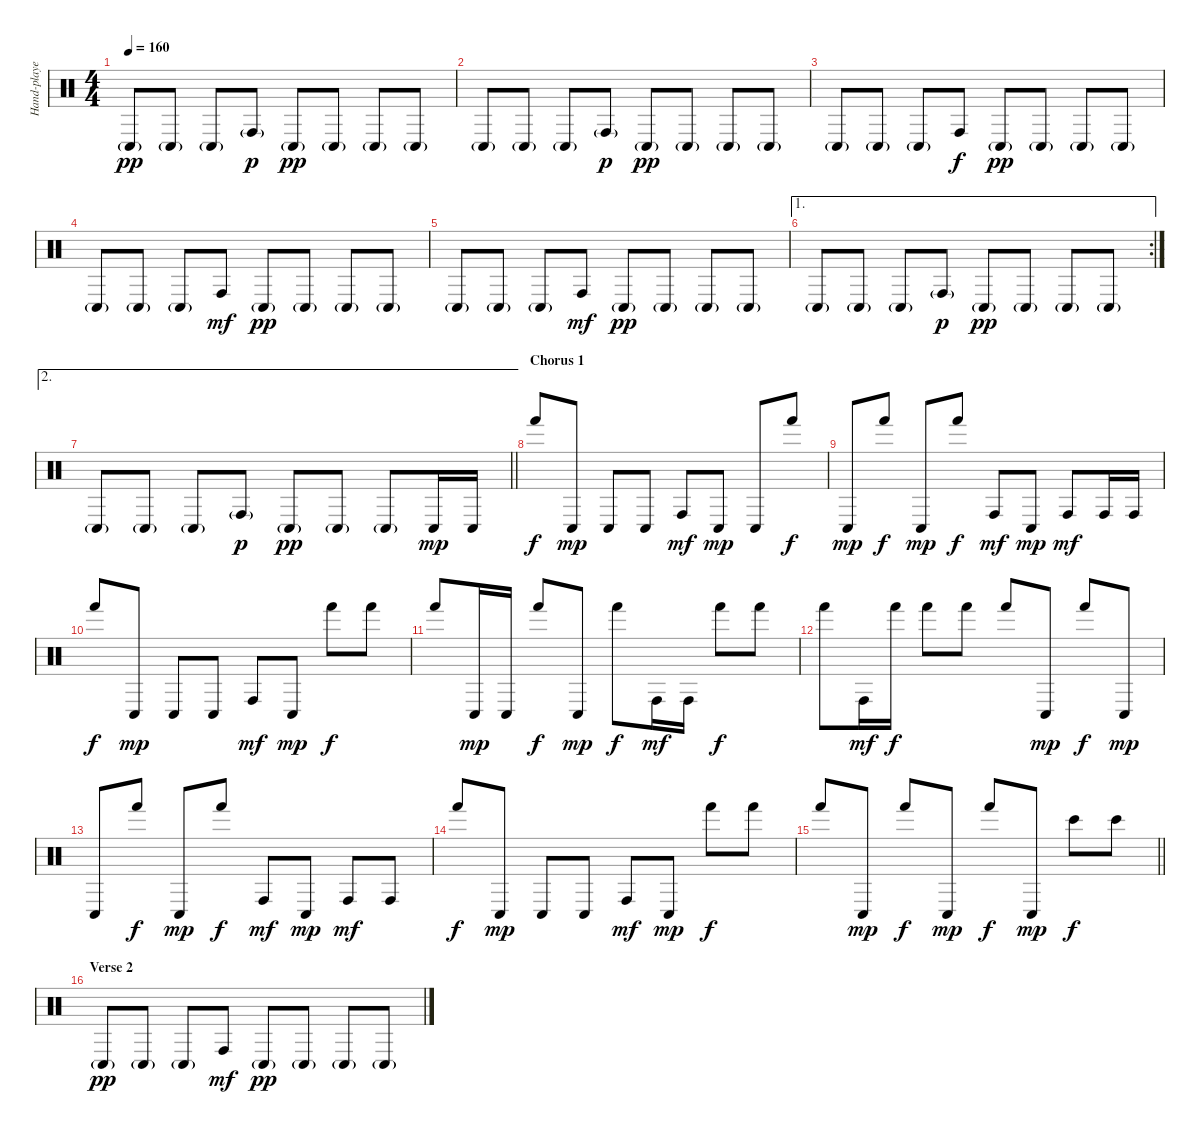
\track ("Hand-played drums" "Hand-playe") {instrument percussion}
\staff {score}
\articulation defaults
\ts (4 4)
\tempo 160
\clef neutral
\ks c "Conga low (hit)"{g}.8{dy pp} "Conga low (hit)"{g}.8 "Conga low (hit)"{g}.8 "Conga high (hit)"{g}.8{dy p} "Conga low (hit)"{g}.8{dy pp} "Conga low (hit)"{g}.8 "Conga low (hit)"{g}.8 "Conga low (hit)"{g}.8
|
"Conga low (hit)"{g}.8 "Conga low (hit)"{g}.8 "Conga low (hit)"{g}.8 "Conga high (hit)"{g}.8{dy p} "Conga low (hit)"{g}.8{dy pp} "Conga low (hit)"{g}.8 "Conga low (hit)"{g}.8 "Conga low (hit)"{g}.8 |
"Conga low (hit)"{g}.8 "Conga low (hit)"{g}.8 "Conga low (hit)"{g}.8 "Conga high (hit)".8{dy f} "Conga low (hit)"{g}.8{dy pp} "Conga low (hit)"{g}.8 "Conga low (hit)"{g}.8 "Conga low (hit)"{g}.8 |
"Conga low (hit)"{g}.8 "Conga low (hit)"{g}.8 "Conga low (hit)"{g}.8 "Conga high (hit)".8{dy mf} "Conga low (hit)"{g}.8{dy pp} "Conga low (hit)"{g}.8 "Conga low (hit)"{g}.8 "Conga low (hit)"{g}.8 |
"Conga low (hit)"{g}.8 "Conga low (hit)"{g}.8 "Conga low (hit)"{g}.8 "Conga high (hit)".8{dy mf} "Conga low (hit)"{g}.8{dy pp} "Conga low (hit)"{g}.8 "Conga low (hit)"{g}.8 "Conga low (hit)"{g}.8 |
\ae 1
\rc 2 "Conga low (hit)"{g}.8 "Conga low (hit)"{g}.8 "Conga low (hit)"{g}.8 "Conga high (hit)"{g}.8{dy p} "Conga low (hit)"{g}.8{dy pp} "Conga low (hit)"{g}.8 "Conga low (hit)"{g}.8 "Conga low (hit)"{g}.8
|
\ae 2
\barLineRight lightlight "Conga low (hit)"{g}.8 "Conga low (hit)"{g}.8 "Conga low (hit)"{g}.8 "Conga high (hit)"{g}.8{dy p} "Conga low (hit)"{g}.8{dy pp} "Conga low (hit)"{g}.8 "Conga low (hit)"{g}.8 "Conga low (hit)".16{dy mp} "Conga low (hit)".16
|
\section ("" "Chorus 1")
"Hand (hit)".8{dy f} "Conga low (hit)".8{dy mp} "Conga low (hit)".8 "Conga low (hit)".8 "Conga high (hit)".8{dy mf} "Conga low (hit)".8{dy mp} "Conga low (hit)".8 "Hand (hit)".8{dy f} |
"Conga low (hit)".8{dy mp} "Hand (hit)".8{dy f} "Conga low (hit)".8{dy mp} "Hand (hit)".8{dy f} "Conga high (hit)".8{dy mf} "Conga low (hit)".8{dy mp} "Conga high (hit)".8{dy mf} "Conga high (hit)".16 "Conga high (hit)".16 |
"Hand (hit)".8{dy f} "Conga low (hit)".8{dy mp} "Conga low (hit)".8 "Conga low (hit)".8 "Conga high (hit)".8{dy mf} "Conga low (hit)".8{dy mp} "Hand (hit)".8{dy f} "Hand (hit)".8 |
"Hand (hit)".8 "Conga low (hit)".16{dy mp} "Conga low (hit)".16 "Hand (hit)".8{dy f} "Conga low (hit)".8{dy mp} "Hand (hit)".8{dy f} "Conga high (hit)".16{dy mf} "Conga high (hit)".16 "Hand (hit)".8{dy f} "Hand (hit)".8 |
"Hand (hit)".8 "Conga high (hit)".16{dy mf} "Hand (hit)".16{dy f} "Hand (hit)".8 "Hand (hit)".8 "Hand (hit)".8 "Conga low (hit)".8{dy mp} "Hand (hit)".8{dy f} "Conga low (hit)".8{dy mp} |
"Conga low (hit)".8 "Hand (hit)".8{dy f} "Conga low (hit)".8{dy mp} "Hand (hit)".8{dy f} "Conga high (hit)".8{dy mf} "Conga low (hit)".8{dy mp} "Conga high (hit)".8{dy mf} "Conga high (hit)".8 |
"Hand (hit)".8{dy f} "Conga low (hit)".8{dy mp} "Conga low (hit)".8 "Conga low (hit)".8 "Conga high (hit)".8{dy mf} "Conga low (hit)".8{dy mp} "Hand (hit)".8{dy f} "Hand (hit)".8 |
\barLineRight lightlight "Hand (hit)".8 "Conga low (hit)".8{dy mp} "Hand (hit)".8{dy f} "Conga low (hit)".8{dy mp} "Hand (hit)".8{dy f} "Conga low (hit)".8{dy mp} "Bongo High (hit)".8{dy f} "Bongo High (hit)".8
|
\section ("" "Verse 2")
"Conga low (hit)"{g}.8{dy pp} "Conga low (hit)"{g}.8 "Conga low (hit)"{g}.8 "Conga high (hit)".8{dy mf} "Conga low (hit)"{g}.8{dy pp} "Conga low (hit)"{g}.8 "Conga low (hit)"{g}.8 "Conga low (hit)"{g}.8
